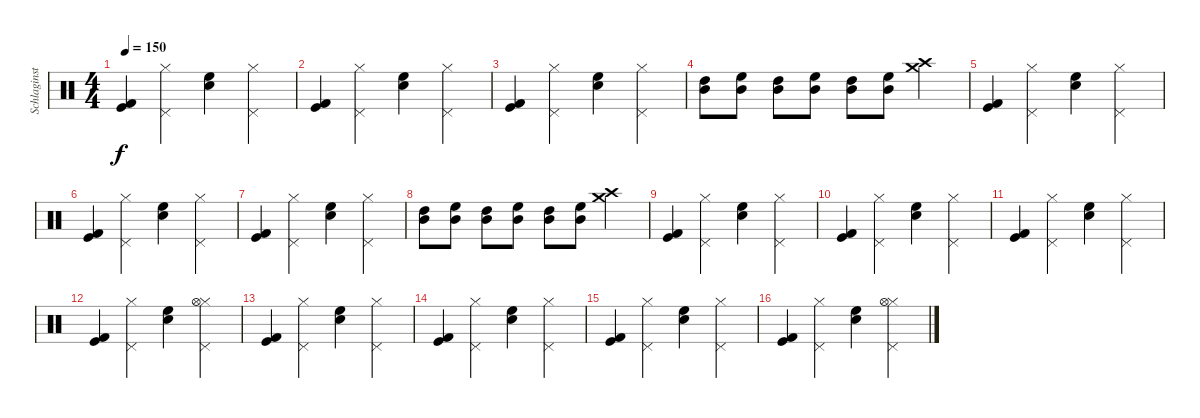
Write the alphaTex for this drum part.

\track ("Schlaginstrumente - Auswahl" "Schlaginst") {instrument percussion}
\staff {score}
\articulation defaults
\ts (4 4)
\tempo 150
\clef neutral
\ks c
("Kick (hit) 2" "Kick (hit)").4{dy f} ("Pedal Hi-Hat (hit)" "Hi-Hat (closed)").4 ("High Floor Tom (hit)" "Snare (hit) 2").4 ("Pedal Hi-Hat (hit)" "Hi-Hat (closed)").4 |
("Kick (hit) 2" "Kick (hit)").4 ("Pedal Hi-Hat (hit)" "Hi-Hat (closed)").4 ("High Floor Tom (hit)" "Snare (hit) 2").4 ("Pedal Hi-Hat (hit)" "Hi-Hat (closed)").4 |
("Kick (hit) 2" "Kick (hit)").4 ("Pedal Hi-Hat (hit)" "Hi-Hat (closed)").4 ("High Floor Tom (hit)" "Snare (hit) 2").4 ("Pedal Hi-Hat (hit)" "Hi-Hat (closed)").4 |
("High Tom (hit)" "Mid Tom (hit)").8 ("High Floor Tom (hit)" "Mid Tom (hit)").8 ("High Tom (hit)" "Mid Tom (hit)").8 ("High Floor Tom (hit)" "Mid Tom (hit)").8 ("High Tom (hit)" "Mid Tom (hit)").8 ("High Floor Tom (hit)" "Mid Tom (hit)").8 ("Crash medium (hit)" "Crash high (hit)").4 |
("Kick (hit) 2" "Kick (hit)").4 ("Pedal Hi-Hat (hit)" "Hi-Hat (closed)").4 ("High Floor Tom (hit)" "Snare (hit) 2").4 ("Pedal Hi-Hat (hit)" "Hi-Hat (closed)").4 |
("Kick (hit) 2" "Kick (hit)").4 ("Pedal Hi-Hat (hit)" "Hi-Hat (closed)").4 ("High Floor Tom (hit)" "Snare (hit) 2").4 ("Pedal Hi-Hat (hit)" "Hi-Hat (closed)").4 |
("Kick (hit) 2" "Kick (hit)").4 ("Pedal Hi-Hat (hit)" "Hi-Hat (closed)").4 ("High Floor Tom (hit)" "Snare (hit) 2").4 ("Pedal Hi-Hat (hit)" "Hi-Hat (closed)").4 |
("High Tom (hit)" "Mid Tom (hit)").8 ("High Floor Tom (hit)" "Mid Tom (hit)").8 ("High Tom (hit)" "Mid Tom (hit)").8 ("High Floor Tom (hit)" "Mid Tom (hit)").8 ("High Tom (hit)" "Mid Tom (hit)").8 ("High Floor Tom (hit)" "Mid Tom (hit)").8 ("Crash medium (hit)" "Crash high (hit)").4 |
("Kick (hit) 2" "Kick (hit)").4 ("Pedal Hi-Hat (hit)" "Hi-Hat (closed)").4 ("High Floor Tom (hit)" "Snare (hit) 2").4 ("Pedal Hi-Hat (hit)" "Hi-Hat (closed)").4 |
("Kick (hit) 2" "Kick (hit)").4 ("Pedal Hi-Hat (hit)" "Hi-Hat (closed)").4 ("High Floor Tom (hit)" "Snare (hit) 2").4 ("Pedal Hi-Hat (hit)" "Hi-Hat (closed)").4 |
("Kick (hit) 2" "Kick (hit)").4 ("Pedal Hi-Hat (hit)" "Hi-Hat (closed)").4 ("High Floor Tom (hit)" "Snare (hit) 2").4 ("Pedal Hi-Hat (hit)" "Hi-Hat (closed)").4 |
("Kick (hit) 2" "Kick (hit)").4 ("Pedal Hi-Hat (hit)" "Hi-Hat (closed)").4 ("High Floor Tom (hit)" "Snare (hit) 2").4 ("Pedal Hi-Hat (hit)" "Hi-Hat (closed)" "Hi-Hat (open)").4 |
("Kick (hit) 2" "Kick (hit)").4 ("Pedal Hi-Hat (hit)" "Hi-Hat (closed)").4 ("High Floor Tom (hit)" "Snare (hit) 2").4 ("Pedal Hi-Hat (hit)" "Hi-Hat (closed)").4 |
("Kick (hit) 2" "Kick (hit)").4 ("Pedal Hi-Hat (hit)" "Hi-Hat (closed)").4 ("High Floor Tom (hit)" "Snare (hit) 2").4 ("Pedal Hi-Hat (hit)" "Hi-Hat (closed)").4 |
("Kick (hit) 2" "Kick (hit)").4 ("Pedal Hi-Hat (hit)" "Hi-Hat (closed)").4 ("High Floor Tom (hit)" "Snare (hit) 2").4 ("Pedal Hi-Hat (hit)" "Hi-Hat (closed)").4 |
("Kick (hit) 2" "Kick (hit)").4 ("Pedal Hi-Hat (hit)" "Hi-Hat (closed)").4 ("High Floor Tom (hit)" "Snare (hit) 2").4 ("Pedal Hi-Hat (hit)" "Hi-Hat (closed)" "Hi-Hat (open)").4
